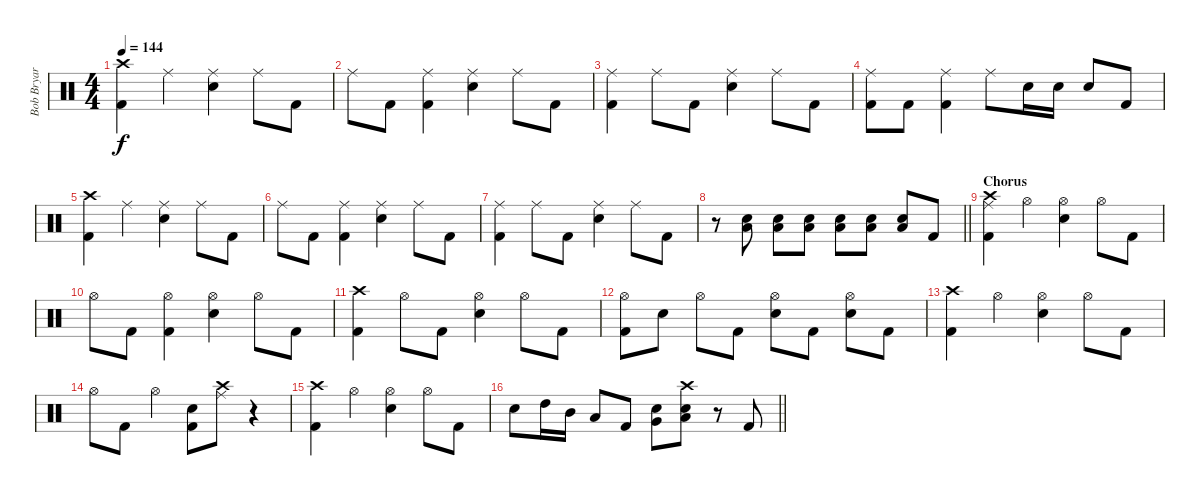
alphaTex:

\track ("Bob Bryar" "Bob Bryar") {instrument percussion}
\staff {score}
\articulation defaults
\ts (4 4)
\tempo 144
\clef neutral
\ks c
("Crash high (hit)" "Kick (hit) 2").4{dy f} "Ride (middle)".4 ("Snare (hit) 2" "Ride (middle)").4 "Ride (middle)".8 "Kick (hit) 2".8 |
"Ride (middle)".8 "Kick (hit) 2".8 ("Kick (hit) 2" "Ride (middle)").4 ("Ride (middle)" "Snare (hit) 2").4 "Ride (middle)".8 "Kick (hit) 2".8 |
("Ride (middle)" "Kick (hit) 2").4 "Ride (middle)".8 "Kick (hit) 2".8 ("Ride (middle)" "Snare (hit) 2").4 "Ride (middle)".8 "Kick (hit) 2".8 |
("Kick (hit) 2" "Ride (middle)").8 "Kick (hit) 2".8 ("Kick (hit) 2" "Ride (middle)").4 "Ride (middle)".8 "Snare (hit) 2".16 "Snare (hit) 2".16 "Snare (hit) 2".8 "Kick (hit) 2".8 |
("Crash high (hit)" "Kick (hit) 2").4 "Ride (middle)".4 ("Snare (hit) 2" "Ride (middle)").4 "Ride (middle)".8 "Kick (hit) 2".8 |
"Ride (middle)".8 "Kick (hit) 2".8 ("Kick (hit) 2" "Ride (middle)").4 ("Ride (middle)" "Snare (hit) 2").4 "Ride (middle)".8 "Kick (hit) 2".8 |
("Ride (middle)" "Kick (hit) 2").4 "Ride (middle)".8 "Kick (hit) 2".8 ("Ride (middle)" "Snare (hit) 2").4 "Ride (middle)".8 "Kick (hit) 2".8 |
\barLineRight lightlight
r.8 ("Snare (hit) 2" "Low Floor Tom (hit)").8 ("Low Floor Tom (hit)" "Snare (hit) 2").8 ("Low Floor Tom (hit)" "Snare (hit) 2").8 ("Low Floor Tom (hit)" "Snare (hit) 2").8 ("Low Floor Tom (hit)" "Snare (hit) 2").8 ("Low Floor Tom (hit)" "Snare (hit) 2").8 "Kick (hit) 2".8 |
\section ("" "Chorus")
("Crash high (hit)" "Ride (middle)" "Kick (hit) 2").4 "Hi-Hat (open)".4 ("Hi-Hat (open)" "Snare (hit) 2").4 "Hi-Hat (open)".8 "Kick (hit) 2".8 |
"Hi-Hat (open)".8 "Kick (hit) 2".8 ("Kick (hit) 2" "Hi-Hat (open)").4 ("Snare (hit) 2" "Hi-Hat (open)").4 "Hi-Hat (open)".8 "Kick (hit) 2".8 |
("Crash high (hit)" "Kick (hit) 2").4 "Hi-Hat (open)".8 "Kick (hit) 2".8 ("Hi-Hat (open)" "Snare (hit) 2").4 "Hi-Hat (open)".8 "Kick (hit) 2".8 |
("Hi-Hat (open)" "Kick (hit) 2").8 "Snare (hit) 2".8 "Hi-Hat (open)".8 "Kick (hit) 2".8 ("Snare (hit) 2" "Hi-Hat (open)").8 "Kick (hit) 2".8 ("Hi-Hat (open)" "Snare (hit) 2").8 "Kick (hit) 2".8 |
("Crash high (hit)" "Kick (hit) 2").4 "Hi-Hat (open)".4 ("Hi-Hat (open)" "Snare (hit) 2").4 "Hi-Hat (open)".8 "Kick (hit) 2".8 |
"Hi-Hat (open)".8 "Kick (hit) 2".8 "Hi-Hat (open)".4 ("Kick (hit) 2" "Snare (hit) 2").8 ("Crash high (hit)" "Ride (middle)").8 r.4 |
("Crash high (hit)" "Kick (hit) 2").4 "Hi-Hat (open)".4 ("Hi-Hat (open)" "Snare (hit) 2").4 "Hi-Hat (open)".8 "Kick (hit) 2".8 |
\barLineRight lightlight "Snare (hit) 2".8 "High Tom (hit)".16 "Mid Tom (hit)".16 "Low Tom (hit)".8 "Kick (hit) 2".8
("Snare (hit) 2" "Very Low Tom (hit)").8 ("Snare (hit) 2" "Low Floor Tom (hit)" "Crash high (hit)").8 r.8 "Kick (hit) 2".8
